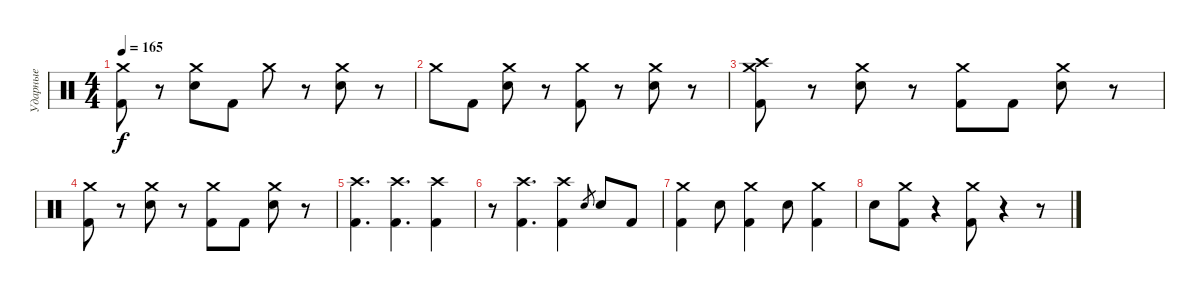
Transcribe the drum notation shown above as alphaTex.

\track ("Ударные" "Ударные") {instrument percussion}
\staff {score}
\articulation defaults
\ts (4 4)
\tempo 165
\clef neutral
\ks c
("Crash medium (hit)" "Kick (hit) 2").8{dy f} r.8 ("Crash medium (hit)" "Electric Snare (hit)").8 "Kick (hit) 2".8 "Crash medium (hit)".8 r.8 ("Crash medium (hit)" "Electric Snare (hit)").8 r.8 |
"Crash medium (hit)".8 "Kick (hit) 2".8 ("Crash medium (hit)" "Electric Snare (hit)").8 r.8 ("Crash medium (hit)" "Kick (hit) 2").8 r.8 ("Crash medium (hit)" "Electric Snare (hit)").8 r.8 |
("Crash medium (hit)" "Crash high (hit)" "Kick (hit) 2").8 r.8 ("Crash medium (hit)" "Electric Snare (hit)").8 r.8 ("Crash medium (hit)" "Kick (hit) 2").8 "Kick (hit) 2".8 ("Crash medium (hit)" "Electric Snare (hit)").8 r.8 |
("Crash medium (hit)" "Kick (hit) 2").8 r.8 ("Crash medium (hit)" "Electric Snare (hit)").8 r.8 ("Crash medium (hit)" "Kick (hit) 2").8 "Kick (hit) 2".8 ("Crash medium (hit)" "Electric Snare (hit)").8 r.8 |
("Crash high (hit)" "Kick (hit) 2").4{d} ("Crash high (hit)" "Kick (hit) 2").4{d} ("Crash high (hit)" "Kick (hit) 2").4 |
r.8 ("Crash high (hit)" "Kick (hit) 2").4{d} ("Crash high (hit)" "Kick (hit) 2").4 "Electric Snare (hit)".8{gr} "Electric Snare (hit)".8 "Kick (hit) 2".8 |
("Crash medium (hit)" "Kick (hit) 2").4 "Electric Snare (hit)".8 ("Crash medium (hit)" "Kick (hit) 2").4 "Electric Snare (hit)".8 ("Crash medium (hit)" "Kick (hit) 2").4 |
"Electric Snare (hit)".8 ("Crash medium (hit)" "Kick (hit) 2").8 r.4 ("Crash medium (hit)" "Kick (hit) 2").8 r.4 r.8
